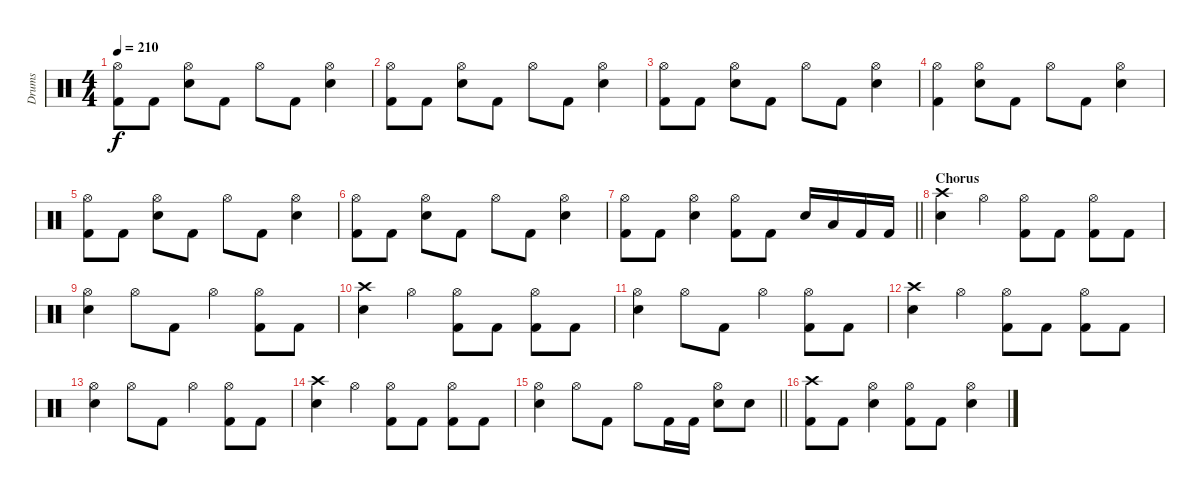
\track ("Drums" "Drums") {instrument percussion}
\staff {score}
\articulation defaults
\ts (4 4)
\tempo 210
\clef neutral
\ks c
("Hi-Hat (open)" "Kick (hit) 2").8{dy f} "Kick (hit) 2".8 ("Hi-Hat (open)" "Snare (hit) 2").8 "Kick (hit) 2".8 "Hi-Hat (open)".8 "Kick (hit) 2".8 ("Hi-Hat (open)" "Snare (hit) 2").4 |
("Hi-Hat (open)" "Kick (hit) 2").8 "Kick (hit) 2".8 ("Hi-Hat (open)" "Snare (hit) 2").8 "Kick (hit) 2".8 "Hi-Hat (open)".8 "Kick (hit) 2".8 ("Hi-Hat (open)" "Snare (hit) 2").4 |
("Hi-Hat (open)" "Kick (hit) 2").8 "Kick (hit) 2".8 ("Hi-Hat (open)" "Snare (hit) 2").8 "Kick (hit) 2".8 "Hi-Hat (open)".8 "Kick (hit) 2".8 ("Hi-Hat (open)" "Snare (hit) 2").4 |
("Hi-Hat (open)" "Kick (hit) 2").4 ("Hi-Hat (open)" "Snare (hit) 2").8 "Kick (hit) 2".8 "Hi-Hat (open)".8 "Kick (hit) 2".8 ("Hi-Hat (open)" "Snare (hit) 2").4 |
("Hi-Hat (open)" "Kick (hit) 2").8 "Kick (hit) 2".8 ("Hi-Hat (open)" "Snare (hit) 2").8 "Kick (hit) 2".8 "Hi-Hat (open)".8 "Kick (hit) 2".8 ("Hi-Hat (open)" "Snare (hit) 2").4 |
("Hi-Hat (open)" "Kick (hit) 2").8 "Kick (hit) 2".8 ("Hi-Hat (open)" "Snare (hit) 2").8 "Kick (hit) 2".8 "Hi-Hat (open)".8 "Kick (hit) 2".8 ("Hi-Hat (open)" "Snare (hit) 2").4 |
\barLineRight lightlight
("Hi-Hat (open)" "Kick (hit) 2").8 "Kick (hit) 2".8 ("Hi-Hat (open)" "Snare (hit) 2").4 ("Hi-Hat (open)" "Kick (hit) 2").8 "Kick (hit) 2".8 "Snare (hit) 2".16 "Low Tom (hit)".16 "Kick (hit) 2".16 "Kick (hit) 2".16 |
\section ("" "Chorus")
("Crash high (hit)" "Snare (hit) 2").4 "Hi-Hat (open)".4 ("Hi-Hat (open)" "Kick (hit) 2").8 "Kick (hit) 2".8 ("Hi-Hat (open)" "Kick (hit) 2").8 "Kick (hit) 2".8 |
("Hi-Hat (open)" "Snare (hit) 2").4 "Hi-Hat (open)".8 "Kick (hit) 2".8 "Hi-Hat (open)".4 ("Hi-Hat (open)" "Kick (hit) 2").8 "Kick (hit) 2".8 |
("Crash high (hit)" "Snare (hit) 2").4 "Hi-Hat (open)".4 ("Hi-Hat (open)" "Kick (hit) 2").8 "Kick (hit) 2".8 ("Hi-Hat (open)" "Kick (hit) 2").8 "Kick (hit) 2".8 |
("Hi-Hat (open)" "Snare (hit) 2").4 "Hi-Hat (open)".8 "Kick (hit) 2".8 "Hi-Hat (open)".4 ("Hi-Hat (open)" "Kick (hit) 2").8 "Kick (hit) 2".8 |
("Crash high (hit)" "Snare (hit) 2").4 "Hi-Hat (open)".4 ("Hi-Hat (open)" "Kick (hit) 2").8 "Kick (hit) 2".8 ("Hi-Hat (open)" "Kick (hit) 2").8 "Kick (hit) 2".8 |
("Hi-Hat (open)" "Snare (hit) 2").4 "Hi-Hat (open)".8 "Kick (hit) 2".8 "Hi-Hat (open)".4 ("Hi-Hat (open)" "Kick (hit) 2").8 "Kick (hit) 2".8 |
("Crash high (hit)" "Snare (hit) 2").4 "Hi-Hat (open)".4 ("Hi-Hat (open)" "Kick (hit) 2").8 "Kick (hit) 2".8 ("Hi-Hat (open)" "Kick (hit) 2").8 "Kick (hit) 2".8 |
\barLineRight lightlight
("Hi-Hat (open)" "Snare (hit) 2").4 "Hi-Hat (open)".8 "Kick (hit) 2".8 "Hi-Hat (open)".8 "Kick (hit) 2".16 "Kick (hit) 2".16 ("Hi-Hat (open)" "Snare (hit) 2").8 "Snare (hit) 2".8 |
("Crash high (hit)" "Kick (hit) 2").8 "Kick (hit) 2".8 ("Hi-Hat (open)" "Snare (hit) 2").4 ("Hi-Hat (open)" "Kick (hit) 2").8 "Kick (hit) 2".8 ("Hi-Hat (open)" "Snare (hit) 2").4
